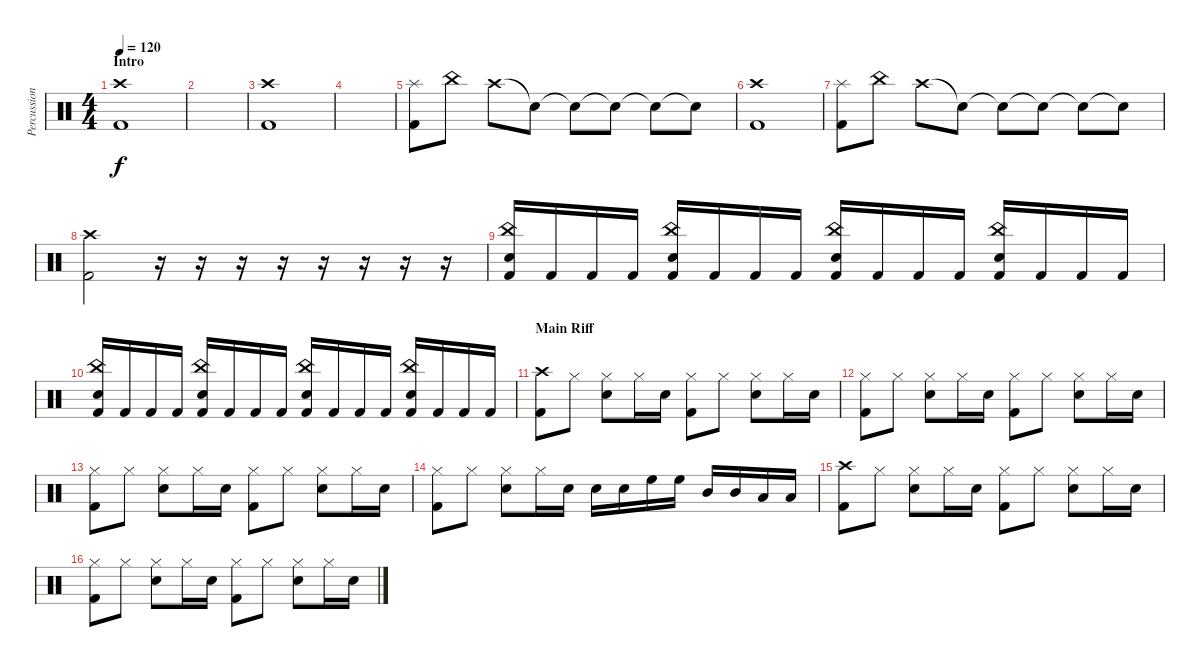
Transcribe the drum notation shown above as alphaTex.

\track ("Percussion" "Percussion") {instrument percussion}
\staff {score}
\articulation defaults
\ts (4 4)
\section ("" "Intro")
\tempo 120
\clef neutral
\ks c
("Crash high (hit)" "Kick (hit) 2").1{dy f} |
|
("Crash high (hit)" "Kick (hit) 2").1 |
|
("Splash (hit)" "Kick (hit) 2").8 "China (hit)".8 "Crash high (hit)".8 "Snare (hit)"{t}.8 "Snare (hit)"{t}.8 "Snare (hit)"{t}.8 "Snare (hit)"{t}.8 "Snare (hit)"{t}.8 |
("Crash high (hit)" "Kick (hit) 2").1 |
("Splash (hit)" "Kick (hit) 2").8 "China (hit)".8 "Crash high (hit)".8 "Snare (hit)"{t}.8 "Snare (hit)"{t}.8 "Snare (hit)"{t}.8 "Snare (hit)"{t}.8 "Snare (hit)"{t}.8 |
("Crash high (hit)" "Kick (hit) 2").2 r.16 r.16 r.16 r.16 r.16 r.16 r.16 r.16 |
("China (hit)" "Electric Snare (hit)" "Kick (hit) 2").16 "Kick (hit) 2".16 "Kick (hit) 2".16 "Kick (hit) 2".16 ("China (hit)" "Electric Snare (hit)" "Kick (hit) 2").16 "Kick (hit) 2".16 "Kick (hit) 2".16 "Kick (hit) 2".16 ("China (hit)" "Electric Snare (hit)" "Kick (hit) 2").16 "Kick (hit) 2".16 "Kick (hit) 2".16 "Kick (hit) 2".16 ("China (hit)" "Electric Snare (hit)" "Kick (hit) 2").16 "Kick (hit) 2".16 "Kick (hit) 2".16 "Kick (hit) 2".16 |
("China (hit)" "Electric Snare (hit)" "Kick (hit) 2").16 "Kick (hit) 2".16 "Kick (hit) 2".16 "Kick (hit) 2".16 ("China (hit)" "Electric Snare (hit)" "Kick (hit) 2").16 "Kick (hit) 2".16 "Kick (hit) 2".16 "Kick (hit) 2".16 ("China (hit)" "Electric Snare (hit)" "Kick (hit) 2").16 "Kick (hit) 2".16 "Kick (hit) 2".16 "Kick (hit) 2".16 ("China (hit)" "Electric Snare (hit)" "Kick (hit) 2").16 "Kick (hit) 2".16 "Kick (hit) 2".16 "Kick (hit) 2".16 |
\section ("" "Main Riff")
("Crash high (hit)" "Kick (hit) 2").8 "Hi-Hat (closed)".8 ("Electric Snare (hit)" "Hi-Hat (closed)").8 "Hi-Hat (closed)".16 "Electric Snare (hit)".16 ("Hi-Hat (closed)" "Kick (hit) 2").8 "Hi-Hat (closed)".8 ("Electric Snare (hit)" "Hi-Hat (closed)").8 "Hi-Hat (closed)".16 "Electric Snare (hit)".16 |
("Hi-Hat (closed)" "Kick (hit) 2").8 "Hi-Hat (closed)".8 ("Electric Snare (hit)" "Hi-Hat (closed)").8 "Hi-Hat (closed)".16 "Electric Snare (hit)".16 ("Hi-Hat (closed)" "Kick (hit) 2").8 "Hi-Hat (closed)".8 ("Electric Snare (hit)" "Hi-Hat (closed)").8 "Hi-Hat (closed)".16 "Electric Snare (hit)".16 |
("Hi-Hat (closed)" "Kick (hit) 2").8 "Hi-Hat (closed)".8 ("Electric Snare (hit)" "Hi-Hat (closed)").8 "Hi-Hat (closed)".16 "Electric Snare (hit)".16 ("Hi-Hat (closed)" "Kick (hit) 2").8 "Hi-Hat (closed)".8 ("Electric Snare (hit)" "Hi-Hat (closed)").8 "Hi-Hat (closed)".16 "Electric Snare (hit)".16 |
("Hi-Hat (closed)" "Kick (hit) 2").8 "Hi-Hat (closed)".8 ("Electric Snare (hit)" "Hi-Hat (closed)").8 "Hi-Hat (closed)".16 "Electric Snare (hit)".16 "Electric Snare (hit)".16 "Electric Snare (hit)".16 "High Floor Tom (hit)".16 "High Floor Tom (hit)".16 "Mid Tom (hit)".16 "Mid Tom (hit)".16 "Low Tom (hit)".16 "Low Tom (hit)".16 |
("Crash high (hit)" "Kick (hit) 2").8 "Hi-Hat (closed)".8 ("Electric Snare (hit)" "Hi-Hat (closed)").8 "Hi-Hat (closed)".16 "Electric Snare (hit)".16 ("Hi-Hat (closed)" "Kick (hit) 2").8 "Hi-Hat (closed)".8 ("Electric Snare (hit)" "Hi-Hat (closed)").8 "Hi-Hat (closed)".16 "Electric Snare (hit)".16 |
("Hi-Hat (closed)" "Kick (hit) 2").8 "Hi-Hat (closed)".8 ("Electric Snare (hit)" "Hi-Hat (closed)").8 "Hi-Hat (closed)".16 "Electric Snare (hit)".16 ("Hi-Hat (closed)" "Kick (hit) 2").8 "Hi-Hat (closed)".8 ("Electric Snare (hit)" "Hi-Hat (closed)").8 "Hi-Hat (closed)".16 "Electric Snare (hit)".16
